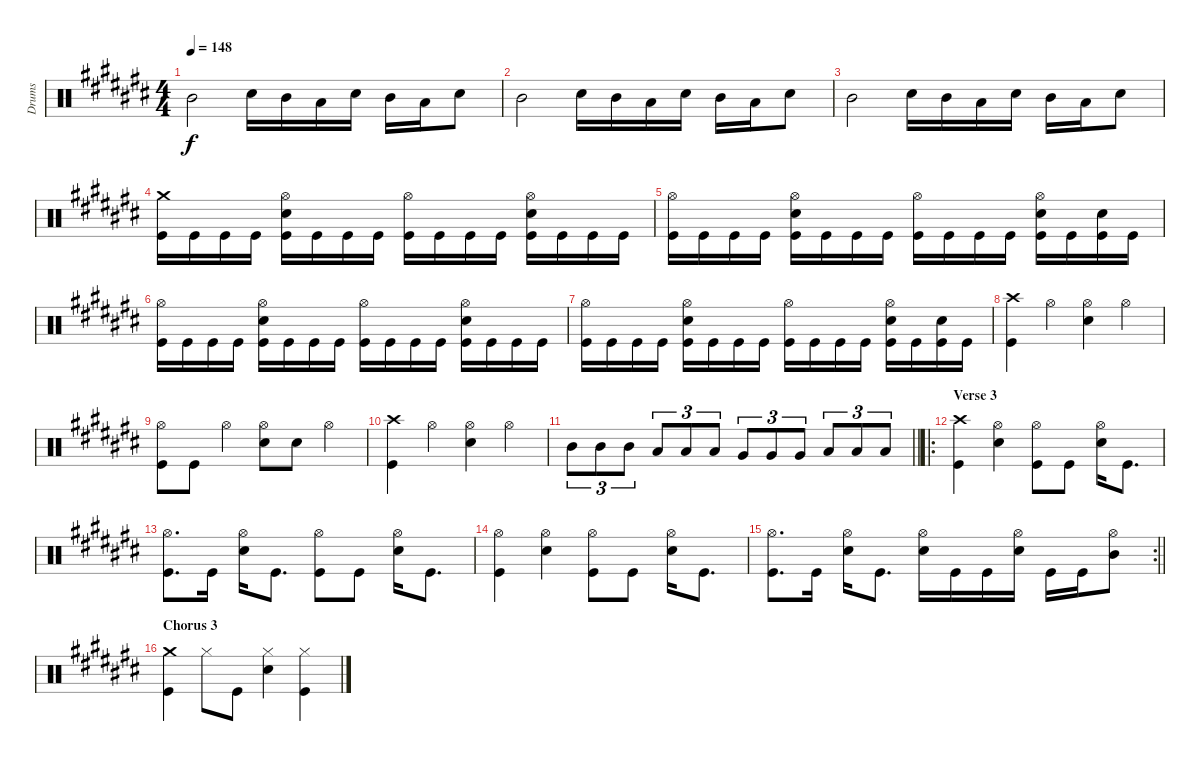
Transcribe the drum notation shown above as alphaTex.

\track ("Drums" "Drums") {instrument percussion}
\staff {score}
\articulation defaults
\ts (4 4)
\tempo 148
\clef neutral
\ks c# "Mid Tom (hit)".2{dy f} "Snare (hit) 2".16 "Mid Tom (hit)".16 "Low Tom (hit)".16 "Snare (hit) 2".16 "Mid Tom (hit)".16 "Low Tom (hit)".16 "Snare (hit) 2".8
|
"Mid Tom (hit)".2 "Snare (hit) 2".16 "Mid Tom (hit)".16 "Low Tom (hit)".16 "Snare (hit) 2".16 "Mid Tom (hit)".16 "Low Tom (hit)".16 "Snare (hit) 2".8 |
"Mid Tom (hit)".2 "Snare (hit) 2".16 "Mid Tom (hit)".16 "Low Tom (hit)".16 "Snare (hit) 2".16 "Mid Tom (hit)".16 "Low Tom (hit)".16 "Snare (hit) 2".8 |
("Crash medium (hit)" "Kick (hit)").16 "Kick (hit)".16 "Kick (hit)".16 "Kick (hit)".16 ("Hi-Hat (open)" "Snare (hit) 2" "Kick (hit)").16 "Kick (hit)".16 "Kick (hit)".16 "Kick (hit)".16 ("Hi-Hat (open)" "Kick (hit)").16 "Kick (hit)".16 "Kick (hit)".16 "Kick (hit)".16 ("Hi-Hat (open)" "Snare (hit) 2" "Kick (hit)").16 "Kick (hit)".16 "Kick (hit)".16 "Kick (hit)".16 |
("Hi-Hat (open)" "Kick (hit)").16 "Kick (hit)".16 "Kick (hit)".16 "Kick (hit)".16 ("Hi-Hat (open)" "Snare (hit) 2" "Kick (hit)").16 "Kick (hit)".16 "Kick (hit)".16 "Kick (hit)".16 ("Hi-Hat (open)" "Kick (hit)").16 "Kick (hit)".16 "Kick (hit)".16 "Kick (hit)".16 ("Hi-Hat (open)" "Snare (hit) 2" "Kick (hit)").16 "Kick (hit)".16 ("Snare (hit) 2" "Kick (hit)").16 "Kick (hit)".16 |
("Hi-Hat (open)" "Kick (hit)").16 "Kick (hit)".16 "Kick (hit)".16 "Kick (hit)".16 ("Hi-Hat (open)" "Snare (hit) 2" "Kick (hit)").16 "Kick (hit)".16 "Kick (hit)".16 "Kick (hit)".16 ("Hi-Hat (open)" "Kick (hit)").16 "Kick (hit)".16 "Kick (hit)".16 "Kick (hit)".16 ("Hi-Hat (open)" "Snare (hit) 2" "Kick (hit)").16 "Kick (hit)".16 "Kick (hit)".16 "Kick (hit)".16 |
("Hi-Hat (open)" "Kick (hit)").16 "Kick (hit)".16 "Kick (hit)".16 "Kick (hit)".16 ("Hi-Hat (open)" "Snare (hit) 2" "Kick (hit)").16 "Kick (hit)".16 "Kick (hit)".16 "Kick (hit)".16 ("Hi-Hat (open)" "Kick (hit)").16 "Kick (hit)".16 "Kick (hit)".16 "Kick (hit)".16 ("Hi-Hat (open)" "Snare (hit) 2" "Kick (hit)").16 "Kick (hit)".16 ("Snare (hit) 2" "Kick (hit)").16 "Kick (hit)".16 |
("Crash high (hit)" "Kick (hit)").4 "Hi-Hat (open)".4 ("Hi-Hat (open)" "Snare (hit) 2").4 "Hi-Hat (open)".4 |
("Hi-Hat (open)" "Kick (hit)").8 "Kick (hit)".8 "Hi-Hat (open)".4 ("Hi-Hat (open)" "Snare (hit) 2").8 "Snare (hit) 2".8 "Hi-Hat (open)".4 |
("Crash high (hit)" "Kick (hit)").4 "Hi-Hat (open)".4 ("Hi-Hat (open)" "Snare (hit) 2").4 "Hi-Hat (open)".4 |
\barLineRight lightlight "Mid Tom (hit)".8{tu (3 2)} "Mid Tom (hit)".8{tu (3 2)} "Mid Tom (hit)".8{tu (3 2)} "Low Tom (hit)".8{tu (3 2)} "Low Tom (hit)".8{tu (3 2)} "Low Tom (hit)".8{tu (3 2)} "Very Low Tom (hit)".8{tu (3 2)} "Very Low Tom (hit)".8{tu (3 2)} "Very Low Tom (hit)".8{tu (3 2)} "Low Floor Tom (hit)".8{tu (3 2)} "Low Floor Tom (hit)".8{tu (3 2)} "Low Floor Tom (hit)".8{tu (3 2)}
|
\ro
\section ("" "Verse 3")
("Crash high (hit)" "Kick (hit)").4 ("Hi-Hat (open)" "Snare (hit) 2").4 ("Hi-Hat (open)" "Kick (hit)").8 "Kick (hit)".8 ("Hi-Hat (open)" "Snare (hit) 2").16 "Kick (hit)".8{d} |
("Hi-Hat (open)" "Kick (hit)").8{d} "Kick (hit)".16 ("Hi-Hat (open)" "Snare (hit) 2").16 "Kick (hit)".8{d} ("Hi-Hat (open)" "Kick (hit)").8 "Kick (hit)".8 ("Hi-Hat (open)" "Snare (hit) 2").16 "Kick (hit)".8{d} |
("Hi-Hat (open)" "Kick (hit)").4 ("Hi-Hat (open)" "Snare (hit) 2").4 ("Hi-Hat (open)" "Kick (hit)").8 "Kick (hit)".8 ("Hi-Hat (open)" "Snare (hit) 2").16 "Kick (hit)".8{d} |
\rc 2
\barLineRight lightlight
("Hi-Hat (open)" "Kick (hit)").8{d} "Kick (hit)".16 ("Hi-Hat (open)" "Snare (hit) 2").16 "Kick (hit)".8{d} ("Hi-Hat (open)" "Snare (hit) 2").16 "Kick (hit)".16 "Kick (hit)".16 ("Hi-Hat (open)" "Snare (hit) 2").16 "Kick (hit)".16 "Kick (hit)".16 ("Hi-Hat (open)" "Mid Tom (hit)").8 |
\section ("" "Chorus 3")
("Crash medium (hit)" "Kick (hit)").4 "Hi-Hat (closed)".8 "Kick (hit)".8 ("Hi-Hat (closed)" "Snare (hit) 2").4 ("Hi-Hat (closed)" "Kick (hit)").4
